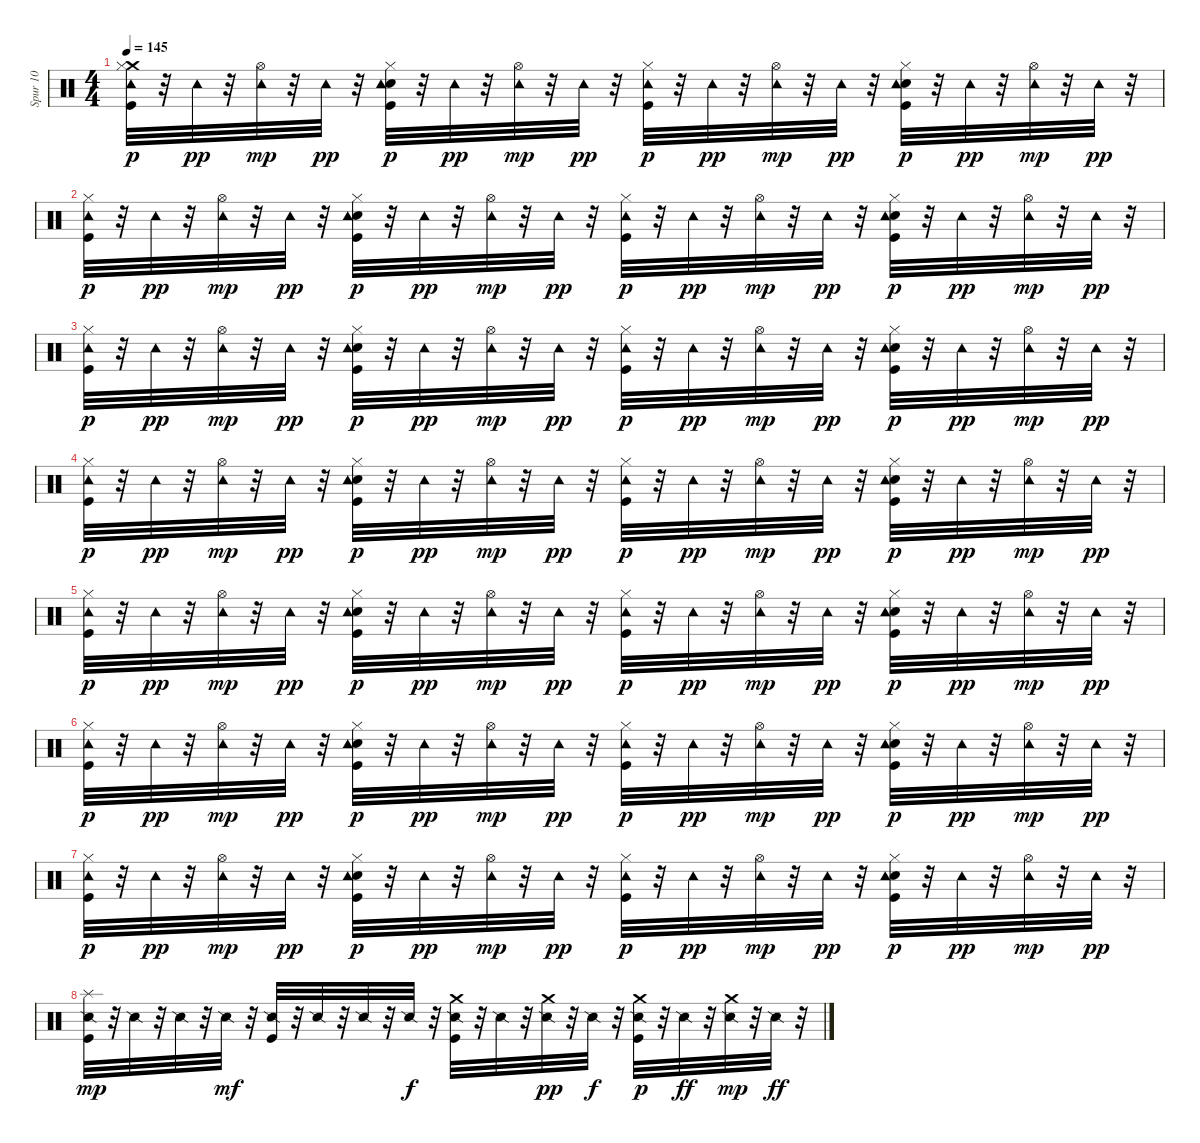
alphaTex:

\track ("Spur 10" "Spur 10") {instrument percussion}
\staff {score}
\articulation defaults
\ts (4 4)
\tempo 145
\clef neutral
\ks c
("Crash medium (hit)" "Kick (hit)" "Hi-Hat (closed)" "Tambourine (hit)").32{dy p balance 8} r.32 "Tambourine (hit)".32{dy pp} r.32 ("Hi-Hat (open)" "Tambourine (hit)").32{dy mp} r.32 "Tambourine (hit)".32{dy pp} r.32 ("Kick (hit)" "Snare (hit) 2" "Hi-Hat (closed)" "Tambourine (hit)").32{dy p} r.32 "Tambourine (hit)".32{dy pp} r.32 ("Hi-Hat (open)" "Tambourine (hit)").32{dy mp} r.32 "Tambourine (hit)".32{dy pp} r.32 ("Kick (hit)" "Hi-Hat (closed)" "Tambourine (hit)").32{dy p} r.32 "Tambourine (hit)".32{dy pp} r.32 ("Hi-Hat (open)" "Tambourine (hit)").32{dy mp} r.32 "Tambourine (hit)".32{dy pp} r.32 ("Kick (hit)" "Snare (hit) 2" "Hi-Hat (closed)" "Tambourine (hit)").32{dy p} r.32 "Tambourine (hit)".32{dy pp} r.32 ("Hi-Hat (open)" "Tambourine (hit)").32{dy mp} r.32 "Tambourine (hit)".32{dy pp} r.32 |
("Kick (hit)" "Hi-Hat (closed)" "Tambourine (hit)").32{dy p} r.32 "Tambourine (hit)".32{dy pp} r.32 ("Hi-Hat (open)" "Tambourine (hit)").32{dy mp} r.32 "Tambourine (hit)".32{dy pp} r.32 ("Kick (hit)" "Snare (hit) 2" "Hi-Hat (closed)" "Tambourine (hit)").32{dy p} r.32 "Tambourine (hit)".32{dy pp} r.32 ("Hi-Hat (open)" "Tambourine (hit)").32{dy mp} r.32 "Tambourine (hit)".32{dy pp} r.32 ("Kick (hit)" "Hi-Hat (closed)" "Tambourine (hit)").32{dy p} r.32 "Tambourine (hit)".32{dy pp} r.32 ("Hi-Hat (open)" "Tambourine (hit)").32{dy mp} r.32 "Tambourine (hit)".32{dy pp} r.32 ("Kick (hit)" "Snare (hit) 2" "Hi-Hat (closed)" "Tambourine (hit)").32{dy p} r.32 "Tambourine (hit)".32{dy pp} r.32 ("Hi-Hat (open)" "Tambourine (hit)").32{dy mp} r.32 "Tambourine (hit)".32{dy pp} r.32 |
("Kick (hit)" "Hi-Hat (closed)" "Tambourine (hit)").32{dy p} r.32 "Tambourine (hit)".32{dy pp} r.32 ("Hi-Hat (open)" "Tambourine (hit)").32{dy mp} r.32 "Tambourine (hit)".32{dy pp} r.32 ("Kick (hit)" "Snare (hit) 2" "Hi-Hat (closed)" "Tambourine (hit)").32{dy p} r.32 "Tambourine (hit)".32{dy pp} r.32 ("Hi-Hat (open)" "Tambourine (hit)").32{dy mp} r.32 "Tambourine (hit)".32{dy pp} r.32 ("Kick (hit)" "Hi-Hat (closed)" "Tambourine (hit)").32{dy p} r.32 "Tambourine (hit)".32{dy pp} r.32 ("Hi-Hat (open)" "Tambourine (hit)").32{dy mp} r.32 "Tambourine (hit)".32{dy pp} r.32 ("Kick (hit)" "Snare (hit) 2" "Hi-Hat (closed)" "Tambourine (hit)").32{dy p} r.32 "Tambourine (hit)".32{dy pp} r.32 ("Hi-Hat (open)" "Tambourine (hit)").32{dy mp} r.32 "Tambourine (hit)".32{dy pp} r.32 |
("Kick (hit)" "Hi-Hat (closed)" "Tambourine (hit)").32{dy p} r.32 "Tambourine (hit)".32{dy pp} r.32 ("Hi-Hat (open)" "Tambourine (hit)").32{dy mp} r.32 "Tambourine (hit)".32{dy pp} r.32 ("Kick (hit)" "Snare (hit) 2" "Hi-Hat (closed)" "Tambourine (hit)").32{dy p} r.32 "Tambourine (hit)".32{dy pp} r.32 ("Hi-Hat (open)" "Tambourine (hit)").32{dy mp} r.32 "Tambourine (hit)".32{dy pp} r.32 ("Kick (hit)" "Hi-Hat (closed)" "Tambourine (hit)").32{dy p} r.32 "Tambourine (hit)".32{dy pp} r.32 ("Hi-Hat (open)" "Tambourine (hit)").32{dy mp} r.32 "Tambourine (hit)".32{dy pp} r.32 ("Kick (hit)" "Snare (hit) 2" "Hi-Hat (closed)" "Tambourine (hit)").32{dy p} r.32 "Tambourine (hit)".32{dy pp} r.32 ("Hi-Hat (open)" "Tambourine (hit)").32{dy mp} r.32 "Tambourine (hit)".32{dy pp} r.32 |
("Kick (hit)" "Hi-Hat (closed)" "Tambourine (hit)").32{dy p} r.32 "Tambourine (hit)".32{dy pp} r.32 ("Hi-Hat (open)" "Tambourine (hit)").32{dy mp} r.32 "Tambourine (hit)".32{dy pp} r.32 ("Kick (hit)" "Snare (hit) 2" "Hi-Hat (closed)" "Tambourine (hit)").32{dy p} r.32 "Tambourine (hit)".32{dy pp} r.32 ("Hi-Hat (open)" "Tambourine (hit)").32{dy mp} r.32 "Tambourine (hit)".32{dy pp} r.32 ("Kick (hit)" "Hi-Hat (closed)" "Tambourine (hit)").32{dy p} r.32 "Tambourine (hit)".32{dy pp} r.32 ("Hi-Hat (open)" "Tambourine (hit)").32{dy mp} r.32 "Tambourine (hit)".32{dy pp} r.32 ("Kick (hit)" "Snare (hit) 2" "Hi-Hat (closed)" "Tambourine (hit)").32{dy p} r.32 "Tambourine (hit)".32{dy pp} r.32 ("Hi-Hat (open)" "Tambourine (hit)").32{dy mp} r.32 "Tambourine (hit)".32{dy pp} r.32 |
("Kick (hit)" "Hi-Hat (closed)" "Tambourine (hit)").32{dy p} r.32 "Tambourine (hit)".32{dy pp} r.32 ("Hi-Hat (open)" "Tambourine (hit)").32{dy mp} r.32 "Tambourine (hit)".32{dy pp} r.32 ("Kick (hit)" "Snare (hit) 2" "Hi-Hat (closed)" "Tambourine (hit)").32{dy p} r.32 "Tambourine (hit)".32{dy pp} r.32 ("Hi-Hat (open)" "Tambourine (hit)").32{dy mp} r.32 "Tambourine (hit)".32{dy pp} r.32 ("Kick (hit)" "Hi-Hat (closed)" "Tambourine (hit)").32{dy p} r.32 "Tambourine (hit)".32{dy pp} r.32 ("Hi-Hat (open)" "Tambourine (hit)").32{dy mp} r.32 "Tambourine (hit)".32{dy pp} r.32 ("Kick (hit)" "Snare (hit) 2" "Hi-Hat (closed)" "Tambourine (hit)").32{dy p} r.32 "Tambourine (hit)".32{dy pp} r.32 ("Hi-Hat (open)" "Tambourine (hit)").32{dy mp} r.32 "Tambourine (hit)".32{dy pp} r.32 |
("Kick (hit)" "Hi-Hat (closed)" "Tambourine (hit)").32{dy p} r.32 "Tambourine (hit)".32{dy pp} r.32 ("Hi-Hat (open)" "Tambourine (hit)").32{dy mp} r.32 "Tambourine (hit)".32{dy pp} r.32 ("Kick (hit)" "Snare (hit) 2" "Hi-Hat (closed)" "Tambourine (hit)").32{dy p} r.32 "Tambourine (hit)".32{dy pp} r.32 ("Hi-Hat (open)" "Tambourine (hit)").32{dy mp} r.32 "Tambourine (hit)".32{dy pp} r.32 ("Kick (hit)" "Hi-Hat (closed)" "Tambourine (hit)").32{dy p} r.32 "Tambourine (hit)".32{dy pp} r.32 ("Hi-Hat (open)" "Tambourine (hit)").32{dy mp} r.32 "Tambourine (hit)".32{dy pp} r.32 ("Kick (hit)" "Snare (hit) 2" "Hi-Hat (closed)" "Tambourine (hit)").32{dy p} r.32 "Tambourine (hit)".32{dy pp} r.32 ("Hi-Hat (open)" "Tambourine (hit)").32{dy mp} r.32 "Tambourine (hit)".32{dy pp} r.32 |
("Snare (side stick) 2" "Kick (hit)" "Splash (hit)").32{dy mp} r.32 "Snare (side stick) 2".32 r.32 "Snare (side stick) 2".32 r.32 "Snare (side stick) 2".32{dy mf} r.32 ("Snare (side stick) 2" "Kick (hit)").32 r.32 "Snare (side stick) 2".32 r.32 "Snare (side stick) 2".32 r.32 "Snare (side stick) 2".32{dy f} r.32 ("Snare (side stick) 2" "Kick (hit)" "Crash medium (hit)").32{balance 10} r.32 "Snare (side stick) 2".32 r.32 ("Snare (side stick) 2" "Crash medium (hit)").32{dy pp balance 14} r.32 "Snare (side stick) 2".32{dy f} r.32 ("Snare (side stick) 2" "Kick (hit)" "Crash medium (hit)").32{dy p balance 7} r.32 "Snare (side stick) 2".32{dy ff} r.32 ("Snare (side stick) 2" "Crash medium (hit)").32{dy mp balance 0} r.32 "Snare (side stick) 2".32{dy ff} r.32
